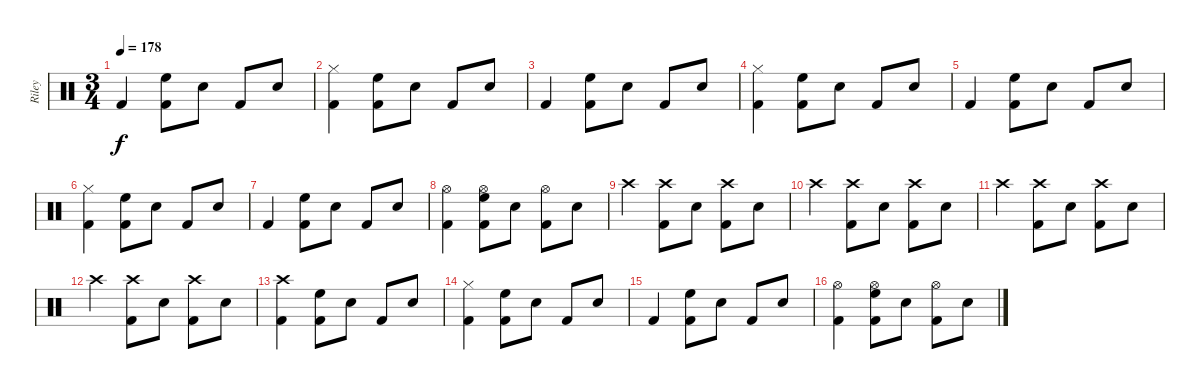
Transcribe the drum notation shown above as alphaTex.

\track ("Riley" "Riley") {instrument percussion}
\staff {score}
\articulation defaults
\ts (3 4)
\tempo 178
\clef neutral
\ks c "Kick (hit) 2".4{dy f}
("High Floor Tom (hit)" "Kick (hit) 2").8 "Snare (hit) 2".8 "Kick (hit) 2".8 "Snare (hit) 2".8 |
("Hi-Hat (closed)" "Kick (hit) 2").4 ("High Floor Tom (hit)" "Kick (hit) 2").8 "Snare (hit) 2".8 "Kick (hit) 2".8 "Snare (hit) 2".8 |
"Kick (hit) 2".4 ("High Floor Tom (hit)" "Kick (hit) 2").8 "Snare (hit) 2".8 "Kick (hit) 2".8 "Snare (hit) 2".8 |
("Hi-Hat (closed)" "Kick (hit) 2").4 ("High Floor Tom (hit)" "Kick (hit) 2").8 "Snare (hit) 2".8 "Kick (hit) 2".8 "Snare (hit) 2".8 |
"Kick (hit) 2".4 ("High Floor Tom (hit)" "Kick (hit) 2").8 "Snare (hit) 2".8 "Kick (hit) 2".8 "Snare (hit) 2".8 |
("Hi-Hat (closed)" "Kick (hit) 2").4 ("High Floor Tom (hit)" "Kick (hit) 2").8 "Snare (hit) 2".8 "Kick (hit) 2".8 "Snare (hit) 2".8 |
"Kick (hit) 2".4 ("High Floor Tom (hit)" "Kick (hit) 2").8 "Snare (hit) 2".8 "Kick (hit) 2".8 "Snare (hit) 2".8 |
("Hi-Hat (open)" "Kick (hit) 2").4 ("Hi-Hat (open)" "High Floor Tom (hit)" "Kick (hit) 2").8 "Snare (hit) 2".8 ("Hi-Hat (open)" "Kick (hit) 2").8 "Snare (hit) 2".8 |
"Crash high (hit)".4 ("Crash high (hit)" "Kick (hit) 2").8 "Snare (hit) 2".8 ("Crash high (hit)" "Kick (hit) 2").8 "Snare (hit) 2".8 |
"Crash high (hit)".4 ("Crash high (hit)" "Kick (hit) 2").8 "Snare (hit) 2".8 ("Crash high (hit)" "Kick (hit) 2").8 "Snare (hit) 2".8 |
"Crash high (hit)".4 ("Crash high (hit)" "Kick (hit) 2").8 "Snare (hit) 2".8 ("Crash high (hit)" "Kick (hit) 2").8 "Snare (hit) 2".8 |
"Crash high (hit)".4 ("Crash high (hit)" "Kick (hit) 2").8 "Snare (hit) 2".8 ("Crash high (hit)" "Kick (hit) 2").8 "Snare (hit) 2".8 |
("Crash high (hit)" "Kick (hit) 2").4 ("High Floor Tom (hit)" "Kick (hit) 2").8 "Snare (hit) 2".8 "Kick (hit) 2".8 "Snare (hit) 2".8 |
("Hi-Hat (closed)" "Kick (hit) 2").4 ("High Floor Tom (hit)" "Kick (hit) 2").8 "Snare (hit) 2".8 "Kick (hit) 2".8 "Snare (hit) 2".8 |
"Kick (hit) 2".4 ("High Floor Tom (hit)" "Kick (hit) 2").8 "Snare (hit) 2".8 "Kick (hit) 2".8 "Snare (hit) 2".8 |
("Hi-Hat (open)" "Kick (hit) 2").4 ("Hi-Hat (open)" "High Floor Tom (hit)" "Kick (hit) 2").8 "Snare (hit) 2".8 ("Hi-Hat (open)" "Kick (hit) 2").8 "Snare (hit) 2".8
